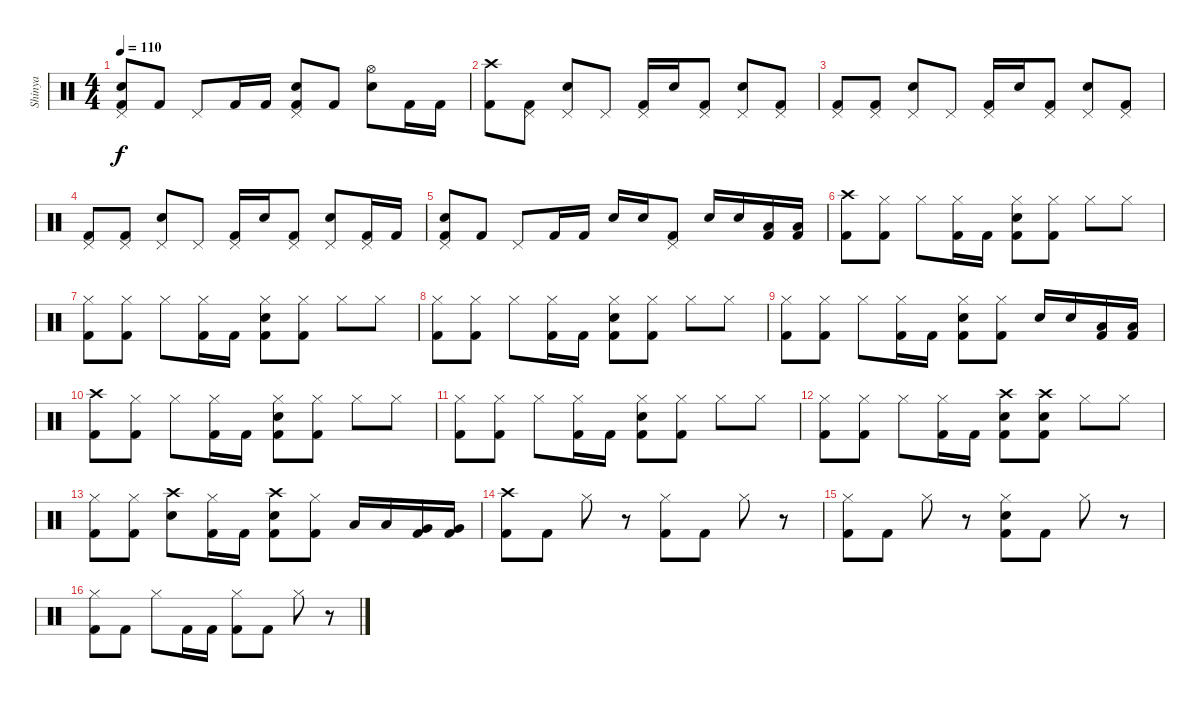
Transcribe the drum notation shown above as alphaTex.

\track ("Shinya" "Shinya") {instrument percussion}
\staff {score}
\articulation defaults
\ts (4 4)
\tempo 110
\clef neutral
\ks c
("Pedal Hi-Hat (hit)" "Electric Snare (hit)" "Kick (hit) 2").8{dy f} "Kick (hit) 2".8 "Pedal Hi-Hat (hit)".8 "Kick (hit) 2".16 "Kick (hit) 2".16 ("Pedal Hi-Hat (hit)" "Electric Snare (hit)" "Kick (hit) 2").8 "Kick (hit) 2".8 ("Hi-Hat (open)" "Electric Snare (hit)").8 "Kick (hit) 2".16 "Kick (hit) 2".16 |
("Crash high (hit)" "Kick (hit) 2").8 ("Pedal Hi-Hat (hit)" "Kick (hit) 2").8 ("Pedal Hi-Hat (hit)" "Electric Snare (hit)").8 "Pedal Hi-Hat (hit)".8 ("Pedal Hi-Hat (hit)" "Kick (hit) 2").16 "Electric Snare (hit)".16 ("Pedal Hi-Hat (hit)" "Kick (hit) 2").8 ("Pedal Hi-Hat (hit)" "Electric Snare (hit)").8 ("Pedal Hi-Hat (hit)" "Kick (hit) 2").8 |
("Pedal Hi-Hat (hit)" "Kick (hit) 2").8 ("Pedal Hi-Hat (hit)" "Kick (hit) 2").8 ("Pedal Hi-Hat (hit)" "Electric Snare (hit)").8 "Pedal Hi-Hat (hit)".8 ("Pedal Hi-Hat (hit)" "Kick (hit) 2").16 "Electric Snare (hit)".16 ("Pedal Hi-Hat (hit)" "Kick (hit) 2").8 ("Pedal Hi-Hat (hit)" "Electric Snare (hit)").8 ("Pedal Hi-Hat (hit)" "Kick (hit) 2").8 |
("Pedal Hi-Hat (hit)" "Kick (hit) 2").8 ("Pedal Hi-Hat (hit)" "Kick (hit) 2").8 ("Pedal Hi-Hat (hit)" "Electric Snare (hit)").8 "Pedal Hi-Hat (hit)".8 ("Pedal Hi-Hat (hit)" "Kick (hit) 2").16 "Electric Snare (hit)".16 ("Pedal Hi-Hat (hit)" "Kick (hit) 2").8 ("Pedal Hi-Hat (hit)" "Electric Snare (hit)").8 ("Pedal Hi-Hat (hit)" "Kick (hit) 2").16 "Kick (hit) 2".16 |
("Pedal Hi-Hat (hit)" "Electric Snare (hit)" "Kick (hit) 2").8 "Kick (hit) 2".8 "Pedal Hi-Hat (hit)".8 "Kick (hit) 2".16 "Kick (hit) 2".16 "Electric Snare (hit)".16 "Electric Snare (hit)".16 ("Pedal Hi-Hat (hit)" "Kick (hit) 2").8 "Electric Snare (hit)".16 "Electric Snare (hit)".16 ("Low Floor Tom (hit)" "Kick (hit) 2").16 ("Low Floor Tom (hit)" "Kick (hit) 2").16 |
("Crash high (hit)" "Kick (hit) 2").8 ("Hi-Hat (closed)" "Kick (hit) 2").8 "Hi-Hat (closed)".8 ("Hi-Hat (closed)" "Kick (hit) 2").16 "Kick (hit) 2".16 ("Hi-Hat (closed)" "Electric Snare (hit)" "Kick (hit) 2").8 ("Hi-Hat (closed)" "Kick (hit) 2").8 "Hi-Hat (closed)".8 "Hi-Hat (closed)".8 |
("Hi-Hat (closed)" "Kick (hit) 2").8 ("Hi-Hat (closed)" "Kick (hit) 2").8 "Hi-Hat (closed)".8 ("Hi-Hat (closed)" "Kick (hit) 2").16 "Kick (hit) 2".16 ("Hi-Hat (closed)" "Electric Snare (hit)" "Kick (hit) 2").8 ("Hi-Hat (closed)" "Kick (hit) 2").8 "Hi-Hat (closed)".8 "Hi-Hat (closed)".8 |
("Hi-Hat (closed)" "Kick (hit) 2").8 ("Hi-Hat (closed)" "Kick (hit) 2").8 "Hi-Hat (closed)".8 ("Hi-Hat (closed)" "Kick (hit) 2").16 "Kick (hit) 2".16 ("Hi-Hat (closed)" "Electric Snare (hit)" "Kick (hit) 2").8 ("Hi-Hat (closed)" "Kick (hit) 2").8 "Hi-Hat (closed)".8 "Hi-Hat (closed)".8 |
("Hi-Hat (closed)" "Kick (hit) 2").8 ("Hi-Hat (closed)" "Kick (hit) 2").8 "Hi-Hat (closed)".8 ("Hi-Hat (closed)" "Kick (hit) 2").16 "Kick (hit) 2".16 ("Hi-Hat (closed)" "Electric Snare (hit)" "Kick (hit) 2").8 ("Hi-Hat (closed)" "Kick (hit) 2").8 "Electric Snare (hit)".16 "Electric Snare (hit)".16 ("Low Floor Tom (hit)" "Kick (hit) 2").16 ("Low Floor Tom (hit)" "Kick (hit) 2").16 |
("Crash high (hit)" "Kick (hit) 2").8 ("Hi-Hat (closed)" "Kick (hit) 2").8 "Hi-Hat (closed)".8 ("Hi-Hat (closed)" "Kick (hit) 2").16 "Kick (hit) 2".16 ("Hi-Hat (closed)" "Electric Snare (hit)" "Kick (hit) 2").8 ("Hi-Hat (closed)" "Kick (hit) 2").8 "Hi-Hat (closed)".8 "Hi-Hat (closed)".8 |
("Hi-Hat (closed)" "Kick (hit) 2").8 ("Hi-Hat (closed)" "Kick (hit) 2").8 "Hi-Hat (closed)".8 ("Hi-Hat (closed)" "Kick (hit) 2").16 "Kick (hit) 2".16 ("Hi-Hat (closed)" "Electric Snare (hit)" "Kick (hit) 2").8 ("Hi-Hat (closed)" "Kick (hit) 2").8 "Hi-Hat (closed)".8 "Hi-Hat (closed)".8 |
("Hi-Hat (closed)" "Kick (hit) 2").8 ("Hi-Hat (closed)" "Kick (hit) 2").8 "Hi-Hat (closed)".8 ("Hi-Hat (closed)" "Kick (hit) 2").16 "Kick (hit) 2".16 ("Crash high (hit)" "Electric Snare (hit)" "Kick (hit) 2").8 ("Crash high (hit)" "Electric Snare (hit)" "Kick (hit) 2").8 "Hi-Hat (closed)".8 "Hi-Hat (closed)".8 |
("Hi-Hat (closed)" "Kick (hit) 2").8 ("Hi-Hat (closed)" "Kick (hit) 2").8 ("Crash high (hit)" "Electric Snare (hit)").8 ("Hi-Hat (closed)" "Kick (hit) 2").16 "Kick (hit) 2".16 ("Crash high (hit)" "Electric Snare (hit)" "Kick (hit) 2").8 ("Hi-Hat (closed)" "Kick (hit) 2").8 "Low Tom (hit)".16 "Low Tom (hit)".16 ("Very Low Tom (hit)" "Kick (hit) 2").16 ("Very Low Tom (hit)" "Kick (hit) 2").16 |
("Crash high (hit)" "Kick (hit) 2").8 "Kick (hit) 2".8 "Hi-Hat (closed)".8 r.8 ("Hi-Hat (closed)" "Kick (hit) 2").8 "Kick (hit) 2".8 "Hi-Hat (closed)".8 r.8 |
("Hi-Hat (closed)" "Kick (hit) 2").8 "Kick (hit) 2".8 "Hi-Hat (closed)".8 r.8 ("Hi-Hat (closed)" "Electric Snare (hit)" "Kick (hit) 2").8 "Kick (hit) 2".8 "Hi-Hat (closed)".8 r.8 |
("Hi-Hat (closed)" "Kick (hit) 2").8 "Kick (hit) 2".8 "Hi-Hat (closed)".8 "Kick (hit) 2".16 "Kick (hit) 2".16 ("Hi-Hat (closed)" "Kick (hit) 2").8 "Kick (hit) 2".8 "Hi-Hat (closed)".8 r.8
